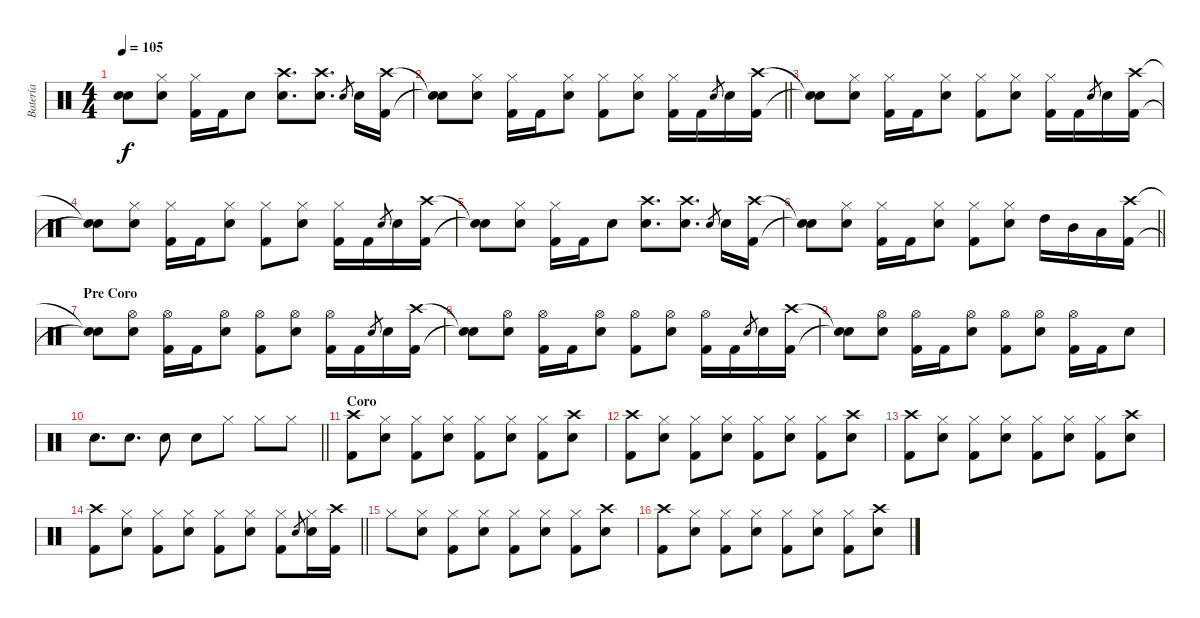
\track ("Batería" "Batería") {instrument percussion}
\staff {score}
\articulation defaults
\ts (4 4)
\tempo 105
\clef neutral
\ks c
("Snare (hit)"{t} "Snare (hit)"{t}).8{dy f} ("Hi-Hat (closed)" "Snare (hit) 2").8 ("Hi-Hat (closed)" "Kick (hit) 2").16 "Kick (hit) 2".16 "Snare (hit) 2".8 ("Crash high (hit)" "Snare (hit) 2").8{d} ("Crash high (hit)" "Snare (hit) 2").8{d} "Snare (hit) 2".8{gr} "Snare (hit) 2".16 ("Kick (hit) 2" "Crash high (hit)").16 |
\barLineRight lightlight
("Snare (hit)"{t} "Snare (hit)"{t}).8 ("Hi-Hat (closed)" "Snare (hit) 2").8 ("Hi-Hat (closed)" "Kick (hit) 2").16 "Kick (hit) 2".16 ("Hi-Hat (closed)" "Snare (hit) 2").8 ("Hi-Hat (closed)" "Kick (hit) 2").8 ("Hi-Hat (closed)" "Snare (hit) 2").8 ("Hi-Hat (closed)" "Kick (hit) 2").16 "Kick (hit) 2".16 "Snare (hit) 2".8{gr} "Snare (hit) 2".16 ("Kick (hit) 2" "Crash high (hit)").16 |
("Snare (hit)"{t} "Snare (hit)"{t}).8 ("Hi-Hat (closed)" "Snare (hit) 2").8 ("Hi-Hat (closed)" "Kick (hit) 2").16 "Kick (hit) 2".16 ("Hi-Hat (closed)" "Snare (hit) 2").8 ("Hi-Hat (closed)" "Kick (hit) 2").8 ("Hi-Hat (closed)" "Snare (hit) 2").8 ("Hi-Hat (closed)" "Kick (hit) 2").16 "Kick (hit) 2".16 "Snare (hit) 2".8{gr} "Snare (hit) 2".16 ("Kick (hit) 2" "Crash high (hit)").16 |
("Snare (hit)"{t} "Snare (hit)"{t}).8 ("Hi-Hat (closed)" "Snare (hit) 2").8 ("Hi-Hat (closed)" "Kick (hit) 2").16 "Kick (hit) 2".16 ("Hi-Hat (closed)" "Snare (hit) 2").8 ("Hi-Hat (closed)" "Kick (hit) 2").8 ("Hi-Hat (closed)" "Snare (hit) 2").8 ("Hi-Hat (closed)" "Kick (hit) 2").16 "Kick (hit) 2".16 "Snare (hit) 2".8{gr} "Snare (hit) 2".16 ("Kick (hit) 2" "Crash high (hit)").16 |
("Snare (hit)"{t} "Snare (hit)"{t}).8 ("Hi-Hat (closed)" "Snare (hit) 2").8 ("Hi-Hat (closed)" "Kick (hit) 2").16 "Kick (hit) 2".16 "Snare (hit) 2".8 ("Crash high (hit)" "Snare (hit) 2").8{d} ("Crash high (hit)" "Snare (hit) 2").8{d} "Snare (hit) 2".8{gr} "Snare (hit) 2".16 ("Kick (hit) 2" "Crash high (hit)").16 |
\barLineRight lightlight
("Snare (hit)"{t} "Snare (hit)"{t}).8 ("Hi-Hat (closed)" "Snare (hit) 2").8 ("Hi-Hat (closed)" "Kick (hit) 2").16 "Kick (hit) 2".16 ("Hi-Hat (closed)" "Snare (hit) 2").8 ("Hi-Hat (closed)" "Kick (hit) 2").8 ("Hi-Hat (closed)" "Snare (hit) 2").8 "High Tom (hit)".16 "Mid Tom (hit)".16 "Low Tom (hit)".16 ("Kick (hit) 2" "Crash high (hit)").16 |
\section ("" "Pre Coro")
("Snare (hit)"{t} "Snare (hit)"{t}).8 ("Hi-Hat (open)" "Snare (hit) 2").8 ("Hi-Hat (open)" "Kick (hit) 2").16 "Kick (hit) 2".16 ("Hi-Hat (open)" "Snare (hit) 2").8 ("Hi-Hat (open)" "Kick (hit) 2").8 ("Hi-Hat (open)" "Snare (hit) 2").8 ("Hi-Hat (open)" "Kick (hit) 2").16 "Kick (hit) 2".16 "Snare (hit) 2".8{gr} "Snare (hit) 2".16 ("Kick (hit) 2" "Crash high (hit)").16 |
("Snare (hit)"{t} "Snare (hit)"{t}).8 ("Hi-Hat (open)" "Snare (hit) 2").8 ("Hi-Hat (open)" "Kick (hit) 2").16 "Kick (hit) 2".16 ("Hi-Hat (open)" "Snare (hit) 2").8 ("Hi-Hat (open)" "Kick (hit) 2").8 ("Hi-Hat (open)" "Snare (hit) 2").8 ("Hi-Hat (open)" "Kick (hit) 2").16 "Kick (hit) 2".16 "Snare (hit) 2".8{gr} "Snare (hit) 2".16 ("Kick (hit) 2" "Crash high (hit)").16 |
("Snare (hit)"{t} "Snare (hit)"{t}).8 ("Hi-Hat (open)" "Snare (hit) 2").8 ("Hi-Hat (open)" "Kick (hit) 2").16 "Kick (hit) 2".16 ("Hi-Hat (open)" "Snare (hit) 2").8 ("Hi-Hat (open)" "Kick (hit) 2").8 ("Hi-Hat (open)" "Snare (hit) 2").8 ("Hi-Hat (open)" "Kick (hit) 2").16 "Kick (hit) 2".16 "Snare (hit) 2".8 |
\barLineRight lightlight "Snare (hit) 2".8{d} "Snare (hit) 2".8{d} "Snare (hit) 2".8 "Snare (hit) 2".8 "Hi-Hat (closed)".8 "Hi-Hat (closed)".8 "Hi-Hat (closed)".8
|
\section ("" "Coro")
("Crash high (hit)" "Kick (hit) 2").8 ("Hi-Hat (closed)" "Snare (hit) 2").8 ("Hi-Hat (closed)" "Kick (hit) 2").8 ("Hi-Hat (closed)" "Snare (hit) 2").8 ("Hi-Hat (closed)" "Kick (hit) 2").8 ("Hi-Hat (closed)" "Snare (hit) 2").8 ("Hi-Hat (closed)" "Kick (hit) 2").8 ("Crash high (hit)" "Snare (hit) 2").8 |
("Crash high (hit)" "Kick (hit) 2").8 ("Hi-Hat (closed)" "Snare (hit) 2").8 ("Hi-Hat (closed)" "Kick (hit) 2").8 ("Hi-Hat (closed)" "Snare (hit) 2").8 ("Hi-Hat (closed)" "Kick (hit) 2").8 ("Hi-Hat (closed)" "Snare (hit) 2").8 ("Hi-Hat (closed)" "Kick (hit) 2").8 ("Crash high (hit)" "Snare (hit) 2").8 |
("Crash high (hit)" "Kick (hit) 2").8 ("Hi-Hat (closed)" "Snare (hit) 2").8 ("Hi-Hat (closed)" "Kick (hit) 2").8 ("Hi-Hat (closed)" "Snare (hit) 2").8 ("Hi-Hat (closed)" "Kick (hit) 2").8 ("Hi-Hat (closed)" "Snare (hit) 2").8 ("Hi-Hat (closed)" "Kick (hit) 2").8 ("Crash high (hit)" "Snare (hit) 2").8 |
\barLineRight lightlight
("Crash high (hit)" "Kick (hit) 2").8 ("Hi-Hat (closed)" "Snare (hit) 2").8 ("Hi-Hat (closed)" "Kick (hit) 2").8 ("Hi-Hat (closed)" "Snare (hit) 2").8 ("Hi-Hat (closed)" "Kick (hit) 2").8 ("Hi-Hat (closed)" "Snare (hit) 2").8 ("Hi-Hat (closed)" "Kick (hit) 2").8 "Snare (hit) 2".8{gr} ("Hi-Hat (closed)" "Snare (hit) 2").16 ("Crash high (hit)" "Kick (hit) 2").16 |
"Hi-Hat (closed)".8 ("Hi-Hat (closed)" "Snare (hit) 2").8 ("Hi-Hat (closed)" "Kick (hit) 2").8 ("Hi-Hat (closed)" "Snare (hit) 2").8 ("Hi-Hat (closed)" "Kick (hit) 2").8 ("Hi-Hat (closed)" "Snare (hit) 2").8 ("Hi-Hat (closed)" "Kick (hit) 2").8 ("Crash high (hit)" "Snare (hit) 2").8 |
("Crash high (hit)" "Kick (hit) 2").8 ("Hi-Hat (closed)" "Snare (hit) 2").8 ("Hi-Hat (closed)" "Kick (hit) 2").8 ("Hi-Hat (closed)" "Snare (hit) 2").8 ("Hi-Hat (closed)" "Kick (hit) 2").8 ("Hi-Hat (closed)" "Snare (hit) 2").8 ("Hi-Hat (closed)" "Kick (hit) 2").8 ("Crash high (hit)" "Snare (hit) 2").8
